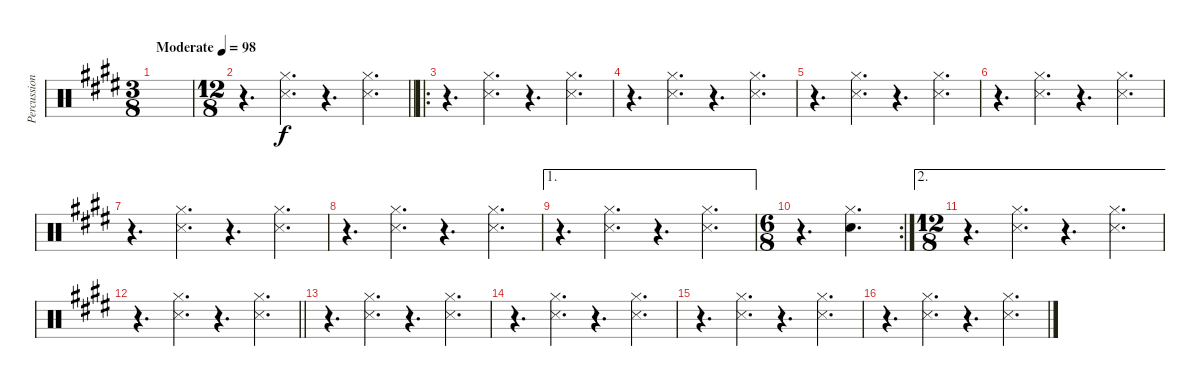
\track ("Percussion" "Percussion") {instrument percussion}
\staff {score}
\articulation defaults
\ts (3 8)
\tempo (98 "Moderate")
\clef neutral
\ks e
|
\ts (12 8)
\barLineRight lightlight
r.4{d} ("Hi-Hat (closed)" "Snare (side stick) 3").4{d} r.4{d} ("Hi-Hat (closed)" "Snare (side stick) 3").4{d} |
\ro
r.4{d} ("Hi-Hat (closed)" "Snare (side stick) 3").4{d} r.4{d} ("Hi-Hat (closed)" "Snare (side stick) 3").4{d} |
r.4{d} ("Hi-Hat (closed)" "Snare (side stick) 3").4{d} r.4{d} ("Hi-Hat (closed)" "Snare (side stick) 3").4{d} |
r.4{d} ("Hi-Hat (closed)" "Snare (side stick) 3").4{d} r.4{d} ("Hi-Hat (closed)" "Snare (side stick) 3").4{d} |
r.4{d} ("Hi-Hat (closed)" "Snare (side stick) 3").4{d} r.4{d} ("Hi-Hat (closed)" "Snare (side stick) 3").4{d} |
r.4{d} ("Hi-Hat (closed)" "Snare (side stick) 3").4{d} r.4{d} ("Hi-Hat (closed)" "Snare (side stick) 3").4{d} |
r.4{d} ("Hi-Hat (closed)" "Snare (side stick) 3").4{d} r.4{d} ("Hi-Hat (closed)" "Snare (side stick) 3").4{d} |
\ae 1
r.4{d} ("Hi-Hat (closed)" "Snare (side stick) 3").4{d} r.4{d} ("Hi-Hat (closed)" "Snare (side stick) 3").4{d} |
\rc 2
\ts (6 8)
r.4{d} ("Hi-Hat (closed)" "Snare (hit) 2").4{d} |
\ae 2
\ts (12 8)
r.4{d} ("Hi-Hat (closed)" "Snare (side stick) 3").4{d} r.4{d} ("Hi-Hat (closed)" "Snare (side stick) 3").4{d} |
\barLineRight lightlight
r.4{d} ("Hi-Hat (closed)" "Snare (side stick) 3").4{d} r.4{d} ("Hi-Hat (closed)" "Snare (side stick) 3").4{d} |
r.4{d} ("Hi-Hat (closed)" "Snare (side stick) 3").4{d} r.4{d} ("Hi-Hat (closed)" "Snare (side stick) 3").4{d} |
r.4{d} ("Hi-Hat (closed)" "Snare (side stick) 3").4{d} r.4{d} ("Hi-Hat (closed)" "Snare (side stick) 3").4{d} |
r.4{d} ("Hi-Hat (closed)" "Snare (side stick) 3").4{d} r.4{d} ("Hi-Hat (closed)" "Snare (side stick) 3").4{d} |
r.4{d} ("Hi-Hat (closed)" "Snare (side stick) 3").4{d} r.4{d} ("Hi-Hat (closed)" "Snare (side stick) 3").4{d}
